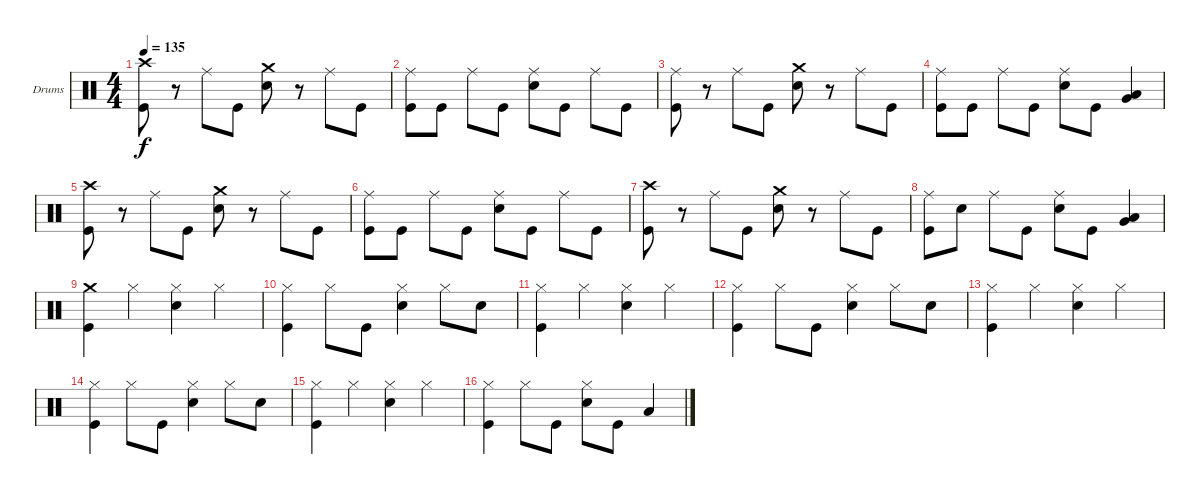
\defaultSystemsLayout 4
\bracketExtendMode groupsimilarinstruments
\firstSystemTrackNameOrientation horizontal
\otherSystemsTrackNameOrientation horizontal
\track ("Drumkit" "Drums") {instrument percussion}
\staff {score}
\articulation defaults
\ts (4 4)
\tempo 135
\clef neutral
\scale
0.5
\ks c
("Crash high (hit)" "Kick (hit)").8{dy f} r.8 "Ride (middle)".8 "Kick (hit)".8 ("Crash medium (hit)" "Snare (hit) 2").8 r.8 "Ride (middle)".8 "Kick (hit)".8 |
\scale
0.5 ("Ride (middle)" "Kick (hit)").8 "Kick (hit)".8 "Ride (middle)".8 "Kick (hit)".8 ("Ride (middle)" "Snare (hit) 2").8 "Kick (hit)".8 "Ride (middle)".8 "Kick (hit)".8 |
\scale
0.5 ("Ride (middle)" "Kick (hit)").8 r.8 "Ride (middle)".8 "Kick (hit)".8 ("Crash medium (hit)" "Snare (hit) 2").8 r.8 "Ride (middle)".8 "Kick (hit)".8 |
\scale
0.5 ("Ride (middle)" "Kick (hit)").8 "Kick (hit)".8 "Ride (middle)".8 "Kick (hit)".8 ("Ride (middle)" "Snare (hit) 2").8 "Kick (hit)".8 ("Low Tom (hit)" "Very Low Tom (hit)").4 |
\scale
0.5 ("Crash high (hit)" "Kick (hit)").8 r.8 "Ride (middle)".8 "Kick (hit)".8 ("Crash medium (hit)" "Snare (hit) 2").8 r.8 "Ride (middle)".8 "Kick (hit)".8 |
\scale
0.5 ("Ride (middle)" "Kick (hit)").8 "Kick (hit)".8 "Ride (middle)".8 "Kick (hit)".8 ("Ride (middle)" "Snare (hit) 2").8 "Kick (hit)".8 "Ride (middle)".8 "Kick (hit)".8 |
\scale
0.5 ("Crash high (hit)" "Kick (hit)").8 r.8 "Ride (middle)".8 "Kick (hit)".8 ("Crash medium (hit)" "Snare (hit) 2").8 r.8 "Ride (middle)".8 "Kick (hit)".8 |
\scale
0.5 ("Ride (middle)" "Kick (hit)").8 "Snare (hit) 2".8 "Ride (middle)".8 "Kick (hit)".8 ("Ride (middle)" "Snare (hit) 2").8 "Kick (hit)".8 ("Low Tom (hit)" "Very Low Tom (hit)").4 |
\scale
0.5 ("Crash medium (hit)" "Kick (hit)").4 "Hi-Hat (closed)".4 ("Hi-Hat (closed)" "Snare (hit) 2").4 "Hi-Hat (closed)".4 |
\scale
0.5 ("Hi-Hat (closed)" "Kick (hit)").4 "Hi-Hat (closed)".8 "Kick (hit)".8 ("Hi-Hat (closed)" "Snare (hit) 2").4 "Hi-Hat (closed)".8 "Snare (hit) 2".8 |
\scale
0.5 ("Hi-Hat (closed)" "Kick (hit)").4 "Hi-Hat (closed)".4 ("Hi-Hat (closed)" "Snare (hit) 2").4 "Hi-Hat (closed)".4 |
\scale
0.5 ("Hi-Hat (closed)" "Kick (hit)").4 "Hi-Hat (closed)".8 "Kick (hit)".8 ("Hi-Hat (closed)" "Snare (hit) 2").4 "Hi-Hat (closed)".8 "Snare (hit) 2".8 |
\scale
0.5 ("Hi-Hat (closed)" "Kick (hit)").4 "Hi-Hat (closed)".4 ("Hi-Hat (closed)" "Snare (hit) 2").4 "Hi-Hat (closed)".4 |
\scale
0.5 ("Hi-Hat (closed)" "Kick (hit)").4 "Hi-Hat (closed)".8 "Kick (hit)".8 ("Hi-Hat (closed)" "Snare (hit) 2").4 "Hi-Hat (closed)".8 "Snare (hit) 2".8 |
\scale
0.5 ("Hi-Hat (closed)" "Kick (hit)").4 "Hi-Hat (closed)".4 ("Hi-Hat (closed)" "Snare (hit) 2").4 "Hi-Hat (closed)".4 |
\scale
0.5 ("Hi-Hat (closed)" "Kick (hit)").4 "Hi-Hat (closed)".8 "Kick (hit)".8 ("Hi-Hat (closed)" "Snare (hit) 2").8 "Kick (hit)".8 "Low Tom (hit)".4
